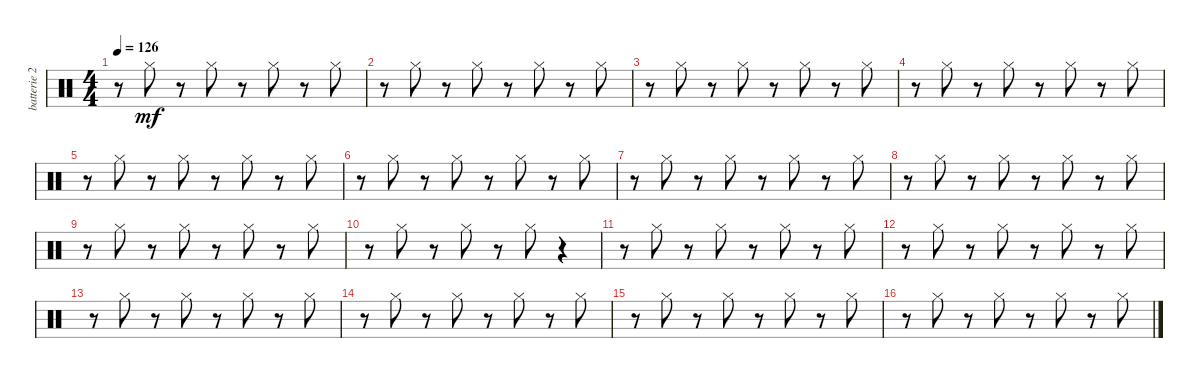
\track ("batterie 2" "batterie 2") {instrument percussion}
\staff {score}
\articulation defaults
\ts (4 4)
\tempo 126
\clef neutral
\ks c
r.8{dy mf} "Hi-Hat (closed)".8 r.8 "Hi-Hat (closed)".8 r.8 "Hi-Hat (closed)".8 r.8 "Hi-Hat (closed)".8 |
r.8 "Hi-Hat (closed)".8 r.8 "Hi-Hat (closed)".8 r.8 "Hi-Hat (closed)".8 r.8 "Hi-Hat (closed)".8 |
r.8 "Hi-Hat (closed)".8 r.8 "Hi-Hat (closed)".8 r.8 "Hi-Hat (closed)".8 r.8 "Hi-Hat (closed)".8 |
r.8 "Hi-Hat (closed)".8 r.8 "Hi-Hat (closed)".8 r.8 "Hi-Hat (closed)".8 r.8 "Hi-Hat (closed)".8 |
r.8 "Hi-Hat (closed)".8 r.8 "Hi-Hat (closed)".8 r.8 "Hi-Hat (closed)".8 r.8 "Hi-Hat (closed)".8 |
r.8 "Hi-Hat (closed)".8 r.8 "Hi-Hat (closed)".8 r.8 "Hi-Hat (closed)".8 r.8 "Hi-Hat (closed)".8 |
r.8 "Hi-Hat (closed)".8 r.8 "Hi-Hat (closed)".8 r.8 "Hi-Hat (closed)".8 r.8 "Hi-Hat (closed)".8 |
r.8 "Hi-Hat (closed)".8 r.8 "Hi-Hat (closed)".8 r.8 "Hi-Hat (closed)".8 r.8 "Hi-Hat (closed)".8 |
r.8 "Hi-Hat (closed)".8 r.8 "Hi-Hat (closed)".8 r.8 "Hi-Hat (closed)".8 r.8 "Hi-Hat (closed)".8 |
r.8 "Hi-Hat (closed)".8 r.8 "Hi-Hat (closed)".8 r.8 "Hi-Hat (closed)".8 r.4 |
r.8 "Hi-Hat (closed)".8 r.8 "Hi-Hat (closed)".8 r.8 "Hi-Hat (closed)".8 r.8 "Hi-Hat (closed)".8 |
r.8 "Hi-Hat (closed)".8 r.8 "Hi-Hat (closed)".8 r.8 "Hi-Hat (closed)".8 r.8 "Hi-Hat (closed)".8 |
r.8 "Hi-Hat (closed)".8 r.8 "Hi-Hat (closed)".8 r.8 "Hi-Hat (closed)".8 r.8 "Hi-Hat (closed)".8 |
r.8 "Hi-Hat (closed)".8 r.8 "Hi-Hat (closed)".8 r.8 "Hi-Hat (closed)".8 r.8 "Hi-Hat (closed)".8 |
r.8 "Hi-Hat (closed)".8 r.8 "Hi-Hat (closed)".8 r.8 "Hi-Hat (closed)".8 r.8 "Hi-Hat (closed)".8 |
r.8 "Hi-Hat (closed)".8 r.8 "Hi-Hat (closed)".8 r.8 "Hi-Hat (closed)".8 r.8 "Hi-Hat (closed)".8
